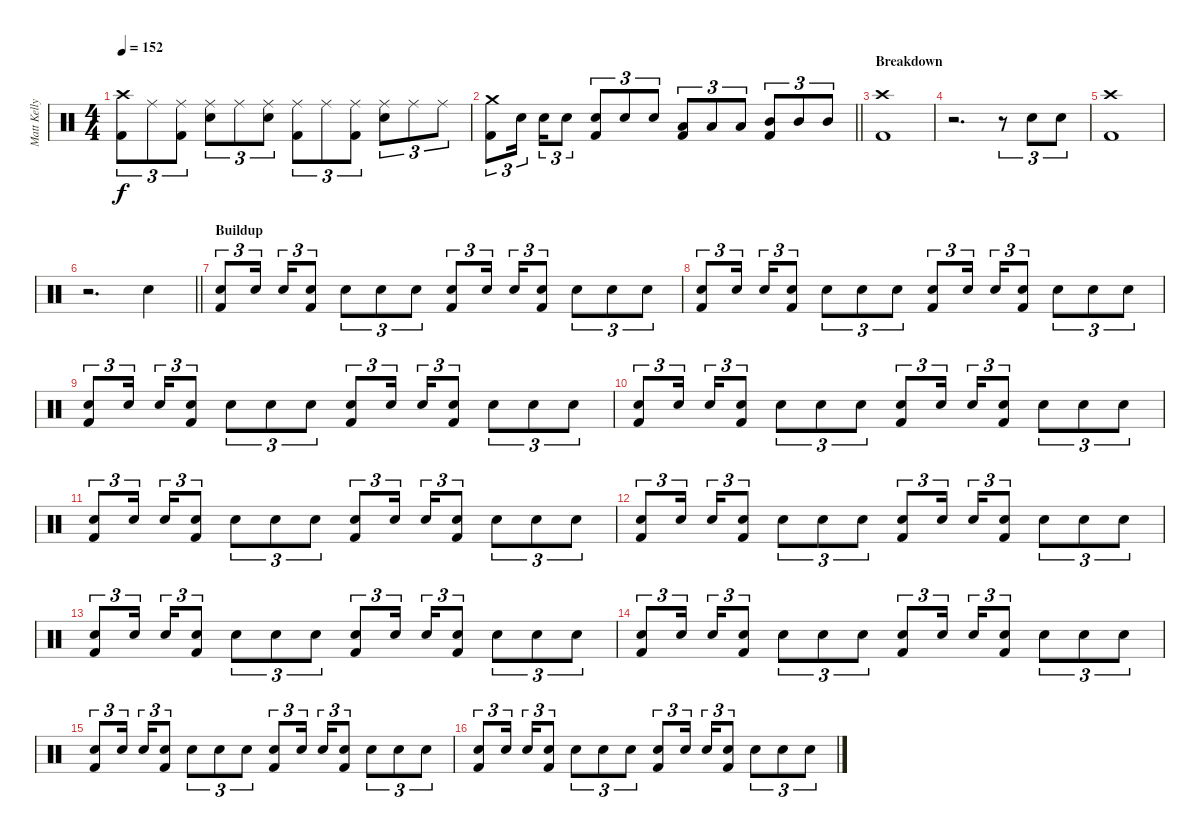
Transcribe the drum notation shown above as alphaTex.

\track ("Matt Kelly (Drums)" "Matt Kelly") {instrument percussion}
\staff {score}
\articulation defaults
\ts (4 4)
\tempo 152
\clef neutral
\ks c
("Crash high (hit)" "Kick (hit) 2").8{tu (3 2) dy f} "Ride (middle)".8{tu (3 2)} ("Ride (middle)" "Kick (hit) 2").8{tu (3 2)} ("Ride (middle)" "Electric Snare (hit)").8{tu (3 2)} "Ride (middle)".8{tu (3 2)} ("Ride (middle)" "Electric Snare (hit)").8{tu (3 2)} ("Ride (middle)" "Kick (hit) 2").8{tu (3 2)} "Ride (middle)".8{tu (3 2)} ("Ride (middle)" "Kick (hit) 2").8{tu (3 2)} ("Ride (middle)" "Electric Snare (hit)").8{tu (3 2)} "Ride (middle)".8{tu (3 2)} "Ride (middle)".8{tu (3 2)} |
\barLineRight lightlight
("Crash medium (hit)" "Kick (hit) 2").8{tu (3 2)} "Electric Snare (hit)".16{tu (3 2) beam splitsecondary} "Electric Snare (hit)".16{tu (3 2)} "Electric Snare (hit)".8{tu (3 2)} ("Electric Snare (hit)" "Kick (hit) 2").8{tu (3 2)} "Electric Snare (hit)".8{tu (3 2)} "Electric Snare (hit)".8{tu (3 2)} ("Low Tom (hit)" "Kick (hit) 2").8{tu (3 2)} "Low Tom (hit)".8{tu (3 2)} "Low Tom (hit)".8{tu (3 2)} ("Mid Tom (hit)" "Kick (hit) 2").8{tu (3 2)} "Mid Tom (hit)".8{tu (3 2)} "Mid Tom (hit)".8{tu (3 2)} |
\section ("" "Breakdown")
("Crash high (hit)" "Kick (hit) 2").1 |
r.2{d} r.8{tu (3 2)} "Electric Snare (hit)".8{tu (3 2)} "Electric Snare (hit)".8{tu (3 2)} |
("Crash high (hit)" "Kick (hit) 2").1 |
\barLineRight lightlight
r.2{d} "Electric Snare (hit)".4 |
\section ("" "Buildup")
("Electric Snare (hit)" "Kick (hit) 2").8{tu (3 2)} "Electric Snare (hit)".16{tu (3 2) beam splitsecondary} "Electric Snare (hit)".16{tu (3 2)} ("Electric Snare (hit)" "Kick (hit) 2").8{tu (3 2)} "Electric Snare (hit)".8{tu (3 2)} "Electric Snare (hit)".8{tu (3 2)} "Electric Snare (hit)".8{tu (3 2)} ("Electric Snare (hit)" "Kick (hit) 2").8{tu (3 2)} "Electric Snare (hit)".16{tu (3 2) beam splitsecondary} "Electric Snare (hit)".16{tu (3 2)} ("Electric Snare (hit)" "Kick (hit) 2").8{tu (3 2)} "Electric Snare (hit)".8{tu (3 2)} "Electric Snare (hit)".8{tu (3 2)} "Electric Snare (hit)".8{tu (3 2)} |
("Electric Snare (hit)" "Kick (hit) 2").8{tu (3 2)} "Electric Snare (hit)".16{tu (3 2) beam splitsecondary} "Electric Snare (hit)".16{tu (3 2)} ("Electric Snare (hit)" "Kick (hit) 2").8{tu (3 2)} "Electric Snare (hit)".8{tu (3 2)} "Electric Snare (hit)".8{tu (3 2)} "Electric Snare (hit)".8{tu (3 2)} ("Electric Snare (hit)" "Kick (hit) 2").8{tu (3 2)} "Electric Snare (hit)".16{tu (3 2) beam splitsecondary} "Electric Snare (hit)".16{tu (3 2)} ("Electric Snare (hit)" "Kick (hit) 2").8{tu (3 2)} "Electric Snare (hit)".8{tu (3 2)} "Electric Snare (hit)".8{tu (3 2)} "Electric Snare (hit)".8{tu (3 2)} |
("Electric Snare (hit)" "Kick (hit) 2").8{tu (3 2)} "Electric Snare (hit)".16{tu (3 2) beam splitsecondary} "Electric Snare (hit)".16{tu (3 2)} ("Electric Snare (hit)" "Kick (hit) 2").8{tu (3 2)} "Electric Snare (hit)".8{tu (3 2)} "Electric Snare (hit)".8{tu (3 2)} "Electric Snare (hit)".8{tu (3 2)} ("Electric Snare (hit)" "Kick (hit) 2").8{tu (3 2)} "Electric Snare (hit)".16{tu (3 2) beam splitsecondary} "Electric Snare (hit)".16{tu (3 2)} ("Electric Snare (hit)" "Kick (hit) 2").8{tu (3 2)} "Electric Snare (hit)".8{tu (3 2)} "Electric Snare (hit)".8{tu (3 2)} "Electric Snare (hit)".8{tu (3 2)} |
("Electric Snare (hit)" "Kick (hit) 2").8{tu (3 2)} "Electric Snare (hit)".16{tu (3 2) beam splitsecondary} "Electric Snare (hit)".16{tu (3 2)} ("Electric Snare (hit)" "Kick (hit) 2").8{tu (3 2)} "Electric Snare (hit)".8{tu (3 2)} "Electric Snare (hit)".8{tu (3 2)} "Electric Snare (hit)".8{tu (3 2)} ("Electric Snare (hit)" "Kick (hit) 2").8{tu (3 2)} "Electric Snare (hit)".16{tu (3 2) beam splitsecondary} "Electric Snare (hit)".16{tu (3 2)} ("Electric Snare (hit)" "Kick (hit) 2").8{tu (3 2)} "Electric Snare (hit)".8{tu (3 2)} "Electric Snare (hit)".8{tu (3 2)} "Electric Snare (hit)".8{tu (3 2)} |
("Electric Snare (hit)" "Kick (hit) 2").8{tu (3 2)} "Electric Snare (hit)".16{tu (3 2) beam splitsecondary} "Electric Snare (hit)".16{tu (3 2)} ("Electric Snare (hit)" "Kick (hit) 2").8{tu (3 2)} "Electric Snare (hit)".8{tu (3 2)} "Electric Snare (hit)".8{tu (3 2)} "Electric Snare (hit)".8{tu (3 2)} ("Electric Snare (hit)" "Kick (hit) 2").8{tu (3 2)} "Electric Snare (hit)".16{tu (3 2) beam splitsecondary} "Electric Snare (hit)".16{tu (3 2)} ("Electric Snare (hit)" "Kick (hit) 2").8{tu (3 2)} "Electric Snare (hit)".8{tu (3 2)} "Electric Snare (hit)".8{tu (3 2)} "Electric Snare (hit)".8{tu (3 2)} |
("Electric Snare (hit)" "Kick (hit) 2").8{tu (3 2)} "Electric Snare (hit)".16{tu (3 2) beam splitsecondary} "Electric Snare (hit)".16{tu (3 2)} ("Electric Snare (hit)" "Kick (hit) 2").8{tu (3 2)} "Electric Snare (hit)".8{tu (3 2)} "Electric Snare (hit)".8{tu (3 2)} "Electric Snare (hit)".8{tu (3 2)} ("Electric Snare (hit)" "Kick (hit) 2").8{tu (3 2)} "Electric Snare (hit)".16{tu (3 2) beam splitsecondary} "Electric Snare (hit)".16{tu (3 2)} ("Electric Snare (hit)" "Kick (hit) 2").8{tu (3 2)} "Electric Snare (hit)".8{tu (3 2)} "Electric Snare (hit)".8{tu (3 2)} "Electric Snare (hit)".8{tu (3 2)} |
("Electric Snare (hit)" "Kick (hit) 2").8{tu (3 2)} "Electric Snare (hit)".16{tu (3 2) beam splitsecondary} "Electric Snare (hit)".16{tu (3 2)} ("Electric Snare (hit)" "Kick (hit) 2").8{tu (3 2)} "Electric Snare (hit)".8{tu (3 2)} "Electric Snare (hit)".8{tu (3 2)} "Electric Snare (hit)".8{tu (3 2)} ("Electric Snare (hit)" "Kick (hit) 2").8{tu (3 2)} "Electric Snare (hit)".16{tu (3 2) beam splitsecondary} "Electric Snare (hit)".16{tu (3 2)} ("Electric Snare (hit)" "Kick (hit) 2").8{tu (3 2)} "Electric Snare (hit)".8{tu (3 2)} "Electric Snare (hit)".8{tu (3 2)} "Electric Snare (hit)".8{tu (3 2)} |
("Electric Snare (hit)" "Kick (hit) 2").8{tu (3 2)} "Electric Snare (hit)".16{tu (3 2) beam splitsecondary} "Electric Snare (hit)".16{tu (3 2)} ("Electric Snare (hit)" "Kick (hit) 2").8{tu (3 2)} "Electric Snare (hit)".8{tu (3 2)} "Electric Snare (hit)".8{tu (3 2)} "Electric Snare (hit)".8{tu (3 2)} ("Electric Snare (hit)" "Kick (hit) 2").8{tu (3 2)} "Electric Snare (hit)".16{tu (3 2) beam splitsecondary} "Electric Snare (hit)".16{tu (3 2)} ("Electric Snare (hit)" "Kick (hit) 2").8{tu (3 2)} "Electric Snare (hit)".8{tu (3 2)} "Electric Snare (hit)".8{tu (3 2)} "Electric Snare (hit)".8{tu (3 2)} |
("Electric Snare (hit)" "Kick (hit) 2").8{tu (3 2)} "Electric Snare (hit)".16{tu (3 2) beam splitsecondary} "Electric Snare (hit)".16{tu (3 2)} ("Electric Snare (hit)" "Kick (hit) 2").8{tu (3 2)} "Electric Snare (hit)".8{tu (3 2)} "Electric Snare (hit)".8{tu (3 2)} "Electric Snare (hit)".8{tu (3 2)} ("Electric Snare (hit)" "Kick (hit) 2").8{tu (3 2)} "Electric Snare (hit)".16{tu (3 2) beam splitsecondary} "Electric Snare (hit)".16{tu (3 2)} ("Electric Snare (hit)" "Kick (hit) 2").8{tu (3 2)} "Electric Snare (hit)".8{tu (3 2)} "Electric Snare (hit)".8{tu (3 2)} "Electric Snare (hit)".8{tu (3 2)} |
("Electric Snare (hit)" "Kick (hit) 2").8{tu (3 2)} "Electric Snare (hit)".16{tu (3 2) beam splitsecondary} "Electric Snare (hit)".16{tu (3 2)} ("Electric Snare (hit)" "Kick (hit) 2").8{tu (3 2)} "Electric Snare (hit)".8{tu (3 2)} "Electric Snare (hit)".8{tu (3 2)} "Electric Snare (hit)".8{tu (3 2)} ("Electric Snare (hit)" "Kick (hit) 2").8{tu (3 2)} "Electric Snare (hit)".16{tu (3 2) beam splitsecondary} "Electric Snare (hit)".16{tu (3 2)} ("Electric Snare (hit)" "Kick (hit) 2").8{tu (3 2)} "Electric Snare (hit)".8{tu (3 2)} "Electric Snare (hit)".8{tu (3 2)} "Electric Snare (hit)".8{tu (3 2)}
